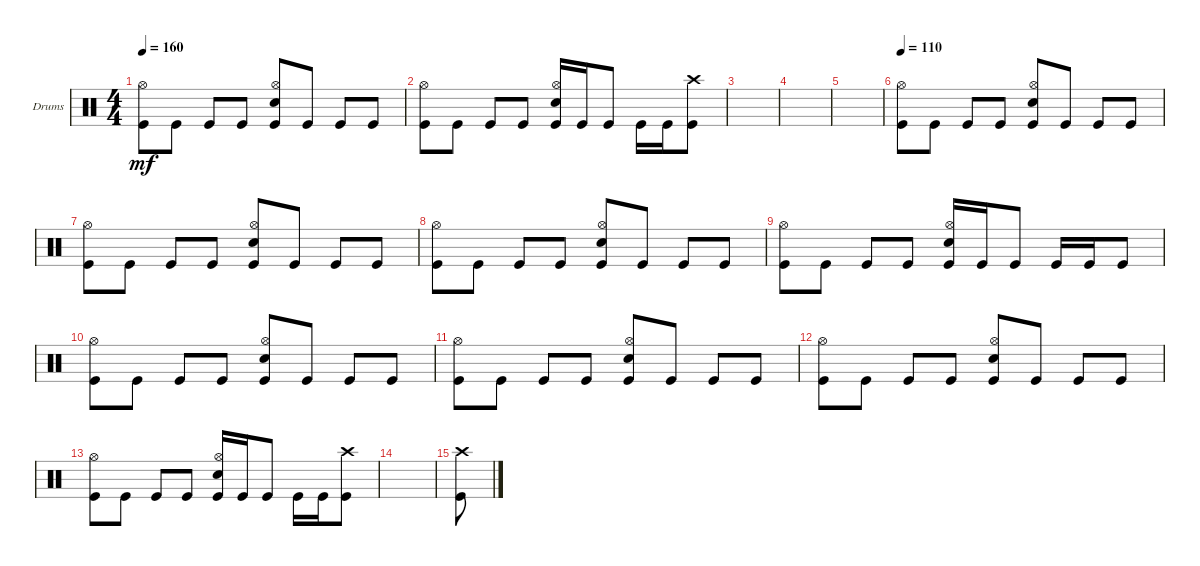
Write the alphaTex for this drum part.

\bracketExtendMode groupsimilarinstruments
\firstSystemTrackNameOrientation horizontal
\otherSystemsTrackNameOrientation horizontal
\track ("Drums" "Drums") {instrument percussion}
\staff {score}
\articulation defaults
\ts (4 4)
\tempo 160
\clef neutral
\scale
0.333333
\ks c
("Kick (hit)" "Hi-Hat (open)").8{dy mf} "Kick (hit)".8 "Kick (hit)".8 "Kick (hit)".8 ("Kick (hit)" "Hi-Hat (open)" "Snare (hit) 2").8 "Kick (hit)".8 "Kick (hit)".8 "Kick (hit)".8 |
\scale
0.333333 ("Kick (hit)" "Hi-Hat (open)").8 "Kick (hit)".8 "Kick (hit)".8 "Kick (hit)".8 ("Kick (hit)" "Hi-Hat (open)" "Snare (hit) 2").16 "Kick (hit)".16 "Kick (hit)".8 "Kick (hit)".16 "Kick (hit)".16 ("Kick (hit)" "Crash high (hit)").8 |
\scale
0.333333 |
\scale
0.333333 |
\scale
0.333333 |
\tempo 110
\scale
0.333333 ("Kick (hit)" "Hi-Hat (open)").8 "Kick (hit)".8 "Kick (hit)".8 "Kick (hit)".8 ("Kick (hit)" "Hi-Hat (open)" "Snare (hit) 2").8 "Kick (hit)".8 "Kick (hit)".8 "Kick (hit)".8 |
\scale
0.333333 ("Kick (hit)" "Hi-Hat (open)").8 "Kick (hit)".8 "Kick (hit)".8 "Kick (hit)".8 ("Kick (hit)" "Hi-Hat (open)" "Snare (hit) 2").8 "Kick (hit)".8 "Kick (hit)".8 "Kick (hit)".8 |
\scale
0.333333 ("Kick (hit)" "Hi-Hat (open)").8 "Kick (hit)".8 "Kick (hit)".8 "Kick (hit)".8 ("Kick (hit)" "Hi-Hat (open)" "Snare (hit) 2").8 "Kick (hit)".8 "Kick (hit)".8 "Kick (hit)".8 |
\scale
0.333333 ("Kick (hit)" "Hi-Hat (open)").8 "Kick (hit)".8 "Kick (hit)".8 "Kick (hit)".8 ("Kick (hit)" "Hi-Hat (open)" "Snare (hit) 2").16 "Kick (hit)".16 "Kick (hit)".8 "Kick (hit)".16 "Kick (hit)".16 "Kick (hit)".8 |
\scale
0.333333 ("Kick (hit)" "Hi-Hat (open)").8 "Kick (hit)".8 "Kick (hit)".8 "Kick (hit)".8 ("Kick (hit)" "Hi-Hat (open)" "Snare (hit) 2").8 "Kick (hit)".8 "Kick (hit)".8 "Kick (hit)".8 |
\scale
0.333333 ("Kick (hit)" "Hi-Hat (open)").8 "Kick (hit)".8 "Kick (hit)".8 "Kick (hit)".8 ("Kick (hit)" "Hi-Hat (open)" "Snare (hit) 2").8 "Kick (hit)".8 "Kick (hit)".8 "Kick (hit)".8 |
\scale
0.333333 ("Kick (hit)" "Hi-Hat (open)").8 "Kick (hit)".8 "Kick (hit)".8 "Kick (hit)".8 ("Kick (hit)" "Hi-Hat (open)" "Snare (hit) 2").8 "Kick (hit)".8 "Kick (hit)".8 "Kick (hit)".8 |
\scale
0.333333 ("Kick (hit)" "Hi-Hat (open)").8 "Kick (hit)".8 "Kick (hit)".8 "Kick (hit)".8 ("Kick (hit)" "Hi-Hat (open)" "Snare (hit) 2").16 "Kick (hit)".16 "Kick (hit)".8 "Kick (hit)".16 "Kick (hit)".16 ("Kick (hit)" "Crash high (hit)").8 |
\scale
0.333333 |
\scale
0.333333 ("Kick (hit)" "Crash high (hit)").8 |
\scale
0.333333
